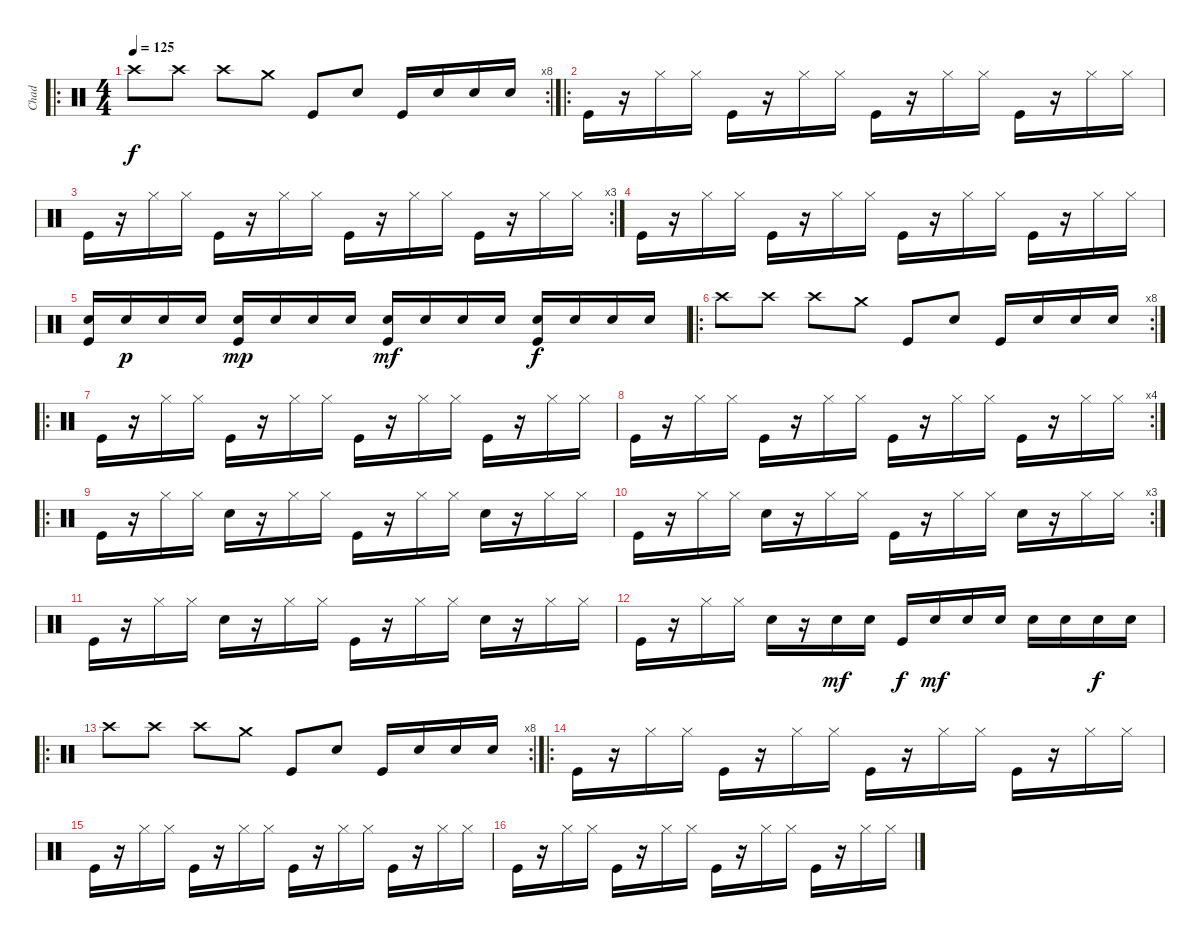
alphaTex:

\track ("Chad" "Chad") {instrument percussion}
\staff {score}
\articulation defaults
\ro
\rc 8
\ts (4 4)
\tempo 125
\clef neutral
\ks c "Crash high (hit)".8{dy f} "Crash high (hit)".8 "Crash high (hit)".8 "Crash medium (hit)".8 "Kick (hit)".8 "Snare (hit) 2".8 "Kick (hit)".16 "Snare (hit) 2".16 "Snare (hit) 2".16 "Snare (hit) 2".16
|
\ro "Kick (hit)".16
r.16 "Hi-Hat (closed)".16 "Hi-Hat (closed)".16 "Kick (hit)".16 r.16 "Hi-Hat (closed)".16 "Hi-Hat (closed)".16 "Kick (hit)".16 r.16 "Hi-Hat (closed)".16 "Hi-Hat (closed)".16 "Kick (hit)".16 r.16 "Hi-Hat (closed)".16 "Hi-Hat (closed)".16 |
\rc 3 "Kick (hit)".16
r.16 "Hi-Hat (closed)".16 "Hi-Hat (closed)".16 "Kick (hit)".16 r.16 "Hi-Hat (closed)".16 "Hi-Hat (closed)".16 "Kick (hit)".16 r.16 "Hi-Hat (closed)".16 "Hi-Hat (closed)".16 "Kick (hit)".16 r.16 "Hi-Hat (closed)".16 "Hi-Hat (closed)".16 |
"Kick (hit)".16 r.16 "Hi-Hat (closed)".16 "Hi-Hat (closed)".16 "Kick (hit)".16 r.16 "Hi-Hat (closed)".16 "Hi-Hat (closed)".16 "Kick (hit)".16 r.16 "Hi-Hat (closed)".16 "Hi-Hat (closed)".16 "Kick (hit)".16 r.16 "Hi-Hat (closed)".16 "Hi-Hat (closed)".16 |
("Snare (hit) 2" "Kick (hit)").16 "Snare (hit) 2".16{dy p} "Snare (hit) 2".16 "Snare (hit) 2".16 ("Snare (hit) 2" "Kick (hit)").16{dy mp} "Snare (hit) 2".16 "Snare (hit) 2".16 "Snare (hit) 2".16 ("Snare (hit) 2" "Kick (hit)").16{dy mf} "Snare (hit) 2".16 "Snare (hit) 2".16 "Snare (hit) 2".16 ("Snare (hit) 2" "Kick (hit)").16{dy f} "Snare (hit) 2".16 "Snare (hit) 2".16 "Snare (hit) 2".16 |
\ro
\rc 8 "Crash high (hit)".8 "Crash high (hit)".8 "Crash high (hit)".8 "Crash medium (hit)".8 "Kick (hit)".8 "Snare (hit) 2".8 "Kick (hit)".16 "Snare (hit) 2".16 "Snare (hit) 2".16 "Snare (hit) 2".16
|
\ro "Kick (hit)".16
r.16 "Hi-Hat (closed)".16 "Hi-Hat (closed)".16 "Kick (hit)".16 r.16 "Hi-Hat (closed)".16 "Hi-Hat (closed)".16 "Kick (hit)".16 r.16 "Hi-Hat (closed)".16 "Hi-Hat (closed)".16 "Kick (hit)".16 r.16 "Hi-Hat (closed)".16 "Hi-Hat (closed)".16 |
\rc 4 "Kick (hit)".16
r.16 "Hi-Hat (closed)".16 "Hi-Hat (closed)".16 "Kick (hit)".16 r.16 "Hi-Hat (closed)".16 "Hi-Hat (closed)".16 "Kick (hit)".16 r.16 "Hi-Hat (closed)".16 "Hi-Hat (closed)".16 "Kick (hit)".16 r.16 "Hi-Hat (closed)".16 "Hi-Hat (closed)".16 |
\ro "Kick (hit)".16
r.16 "Hi-Hat (closed)".16 "Hi-Hat (closed)".16 "Snare (hit) 2".16 r.16 "Hi-Hat (closed)".16 "Hi-Hat (closed)".16 "Kick (hit)".16 r.16 "Hi-Hat (closed)".16 "Hi-Hat (closed)".16 "Snare (hit) 2".16 r.16 "Hi-Hat (closed)".16 "Hi-Hat (closed)".16 |
\rc 3 "Kick (hit)".16
r.16 "Hi-Hat (closed)".16 "Hi-Hat (closed)".16 "Snare (hit) 2".16 r.16 "Hi-Hat (closed)".16 "Hi-Hat (closed)".16 "Kick (hit)".16 r.16 "Hi-Hat (closed)".16 "Hi-Hat (closed)".16 "Snare (hit) 2".16 r.16 "Hi-Hat (closed)".16 "Hi-Hat (closed)".16 |
"Kick (hit)".16 r.16 "Hi-Hat (closed)".16 "Hi-Hat (closed)".16 "Snare (hit) 2".16 r.16 "Hi-Hat (closed)".16 "Hi-Hat (closed)".16 "Kick (hit)".16 r.16 "Hi-Hat (closed)".16 "Hi-Hat (closed)".16 "Snare (hit) 2".16 r.16 "Hi-Hat (closed)".16 "Hi-Hat (closed)".16 |
"Kick (hit)".16 r.16 "Hi-Hat (closed)".16 "Hi-Hat (closed)".16 "Snare (hit) 2".16 r.16 "Snare (hit) 2".16{dy mf} "Snare (hit) 2".16 "Kick (hit)".16{dy f} "Snare (hit) 2".16{dy mf} "Snare (hit) 2".16 "Snare (hit) 2".16 "Snare (hit) 2".16 "Snare (hit) 2".16 "Snare (hit) 2".16{dy f} "Snare (hit) 2".16 |
\ro
\rc 8 "Crash high (hit)".8 "Crash high (hit)".8 "Crash high (hit)".8 "Crash medium (hit)".8 "Kick (hit)".8 "Snare (hit) 2".8 "Kick (hit)".16 "Snare (hit) 2".16 "Snare (hit) 2".16 "Snare (hit) 2".16
|
\ro "Kick (hit)".16
r.16 "Hi-Hat (closed)".16 "Hi-Hat (closed)".16 "Kick (hit)".16 r.16 "Hi-Hat (closed)".16 "Hi-Hat (closed)".16 "Kick (hit)".16 r.16 "Hi-Hat (closed)".16 "Hi-Hat (closed)".16 "Kick (hit)".16 r.16 "Hi-Hat (closed)".16 "Hi-Hat (closed)".16 |
"Kick (hit)".16 r.16 "Hi-Hat (closed)".16 "Hi-Hat (closed)".16 "Kick (hit)".16 r.16 "Hi-Hat (closed)".16 "Hi-Hat (closed)".16 "Kick (hit)".16 r.16 "Hi-Hat (closed)".16 "Hi-Hat (closed)".16 "Kick (hit)".16 r.16 "Hi-Hat (closed)".16 "Hi-Hat (closed)".16 |
"Kick (hit)".16 r.16 "Hi-Hat (closed)".16 "Hi-Hat (closed)".16 "Kick (hit)".16 r.16 "Hi-Hat (closed)".16 "Hi-Hat (closed)".16 "Kick (hit)".16 r.16 "Hi-Hat (closed)".16 "Hi-Hat (closed)".16 "Kick (hit)".16 r.16 "Hi-Hat (closed)".16 "Hi-Hat (closed)".16
